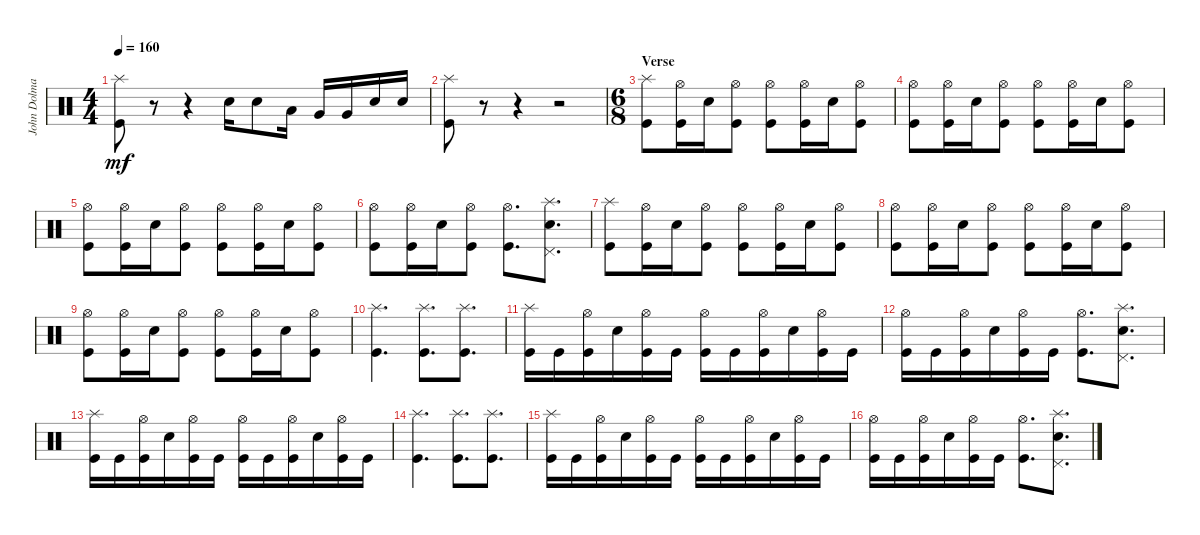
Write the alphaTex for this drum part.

\track ("John Dolmayan" "John Dolma") {instrument percussion}
\staff {score}
\articulation defaults
\ts (4 4)
\tempo 160
\clef neutral
\ks c
("Kick (hit)" "Splash (hit)").8{dy mf} r.8 r.4 "Snare (hit) 2".16 "Snare (hit) 2".8 "Low Tom (hit)".16 "Very Low Tom (hit)".16 "Very Low Tom (hit)".16 "Snare (hit) 2".16 "Snare (hit) 2".16 |
("Kick (hit)" "Splash (hit)").8 r.8 r.4 r.2 |
\ts (6 8)
\section ("" "Verse ")
("Kick (hit)" "Splash (hit)").8 ("Kick (hit)" "Hi-Hat (open)").16 "Snare (hit) 2".16 ("Kick (hit)" "Hi-Hat (open)").8 ("Kick (hit)" "Hi-Hat (open)").8 ("Kick (hit)" "Hi-Hat (open)").16 "Snare (hit) 2".16 ("Kick (hit)" "Hi-Hat (open)").8 |
("Kick (hit)" "Hi-Hat (open)").8 ("Kick (hit)" "Hi-Hat (open)").16 "Snare (hit) 2".16 ("Kick (hit)" "Hi-Hat (open)").8 ("Kick (hit)" "Hi-Hat (open)").8 ("Kick (hit)" "Hi-Hat (open)").16 "Snare (hit) 2".16 ("Kick (hit)" "Hi-Hat (open)").8 |
("Kick (hit)" "Hi-Hat (open)").8 ("Kick (hit)" "Hi-Hat (open)").16 "Snare (hit) 2".16 ("Kick (hit)" "Hi-Hat (open)").8 ("Kick (hit)" "Hi-Hat (open)").8 ("Kick (hit)" "Hi-Hat (open)").16 "Snare (hit) 2".16 ("Kick (hit)" "Hi-Hat (open)").8 |
("Kick (hit)" "Hi-Hat (open)").8 ("Kick (hit)" "Hi-Hat (open)").16 "Snare (hit) 2".16 ("Kick (hit)" "Hi-Hat (open)").8 ("Kick (hit)" "Hi-Hat (open)").8{d} ("Snare (hit) 2" "Splash (hit)" "Pedal Hi-Hat (hit)").8{d} |
("Kick (hit)" "Splash (hit)").8 ("Kick (hit)" "Hi-Hat (open)").16 "Snare (hit) 2".16 ("Kick (hit)" "Hi-Hat (open)").8 ("Kick (hit)" "Hi-Hat (open)").8 ("Kick (hit)" "Hi-Hat (open)").16 "Snare (hit) 2".16 ("Kick (hit)" "Hi-Hat (open)").8 |
("Kick (hit)" "Hi-Hat (open)").8 ("Kick (hit)" "Hi-Hat (open)").16 "Snare (hit) 2".16 ("Kick (hit)" "Hi-Hat (open)").8 ("Kick (hit)" "Hi-Hat (open)").8 ("Kick (hit)" "Hi-Hat (open)").16 "Snare (hit) 2".16 ("Kick (hit)" "Hi-Hat (open)").8 |
("Kick (hit)" "Hi-Hat (open)").8 ("Kick (hit)" "Hi-Hat (open)").16 "Snare (hit) 2".16 ("Kick (hit)" "Hi-Hat (open)").8 ("Kick (hit)" "Hi-Hat (open)").8 ("Kick (hit)" "Hi-Hat (open)").16 "Snare (hit) 2".16 ("Kick (hit)" "Hi-Hat (open)").8 |
("Kick (hit)" "Splash (hit)").4{d} ("Kick (hit)" "Splash (hit)").8{d} ("Kick (hit)" "Splash (hit)").8{d} |
("Kick (hit)" "Splash (hit)").16 "Kick (hit)".16 ("Kick (hit)" "Hi-Hat (open)").16 "Snare (hit) 2".16 ("Kick (hit)" "Hi-Hat (open)").16 "Kick (hit)".16 ("Kick (hit)" "Hi-Hat (open)").16 "Kick (hit)".16 ("Kick (hit)" "Hi-Hat (open)").16 "Snare (hit) 2".16 ("Kick (hit)" "Hi-Hat (open)").16 "Kick (hit)".16 |
("Kick (hit)" "Hi-Hat (open)").16 "Kick (hit)".16 ("Kick (hit)" "Hi-Hat (open)").16 "Snare (hit) 2".16 ("Kick (hit)" "Hi-Hat (open)").16 "Kick (hit)".16 ("Kick (hit)" "Hi-Hat (open)").8{d} ("Snare (hit) 2" "Splash (hit)" "Pedal Hi-Hat (hit)").8{d} |
("Kick (hit)" "Splash (hit)").16 "Kick (hit)".16 ("Kick (hit)" "Hi-Hat (open)").16 "Snare (hit) 2".16 ("Kick (hit)" "Hi-Hat (open)").16 "Kick (hit)".16 ("Kick (hit)" "Hi-Hat (open)").16 "Kick (hit)".16 ("Kick (hit)" "Hi-Hat (open)").16 "Snare (hit) 2".16 ("Kick (hit)" "Hi-Hat (open)").16 "Kick (hit)".16 |
("Kick (hit)" "Splash (hit)").4{d} ("Kick (hit)" "Splash (hit)").8{d} ("Kick (hit)" "Splash (hit)").8{d} |
("Kick (hit)" "Splash (hit)").16 "Kick (hit)".16 ("Kick (hit)" "Hi-Hat (open)").16 "Snare (hit) 2".16 ("Kick (hit)" "Hi-Hat (open)").16 "Kick (hit)".16 ("Kick (hit)" "Hi-Hat (open)").16 "Kick (hit)".16 ("Kick (hit)" "Hi-Hat (open)").16 "Snare (hit) 2".16 ("Kick (hit)" "Hi-Hat (open)").16 "Kick (hit)".16 |
("Kick (hit)" "Hi-Hat (open)").16 "Kick (hit)".16 ("Kick (hit)" "Hi-Hat (open)").16 "Snare (hit) 2".16 ("Kick (hit)" "Hi-Hat (open)").16 "Kick (hit)".16 ("Kick (hit)" "Hi-Hat (open)").8{d} ("Snare (hit) 2" "Splash (hit)" "Pedal Hi-Hat (hit)").8{d}
